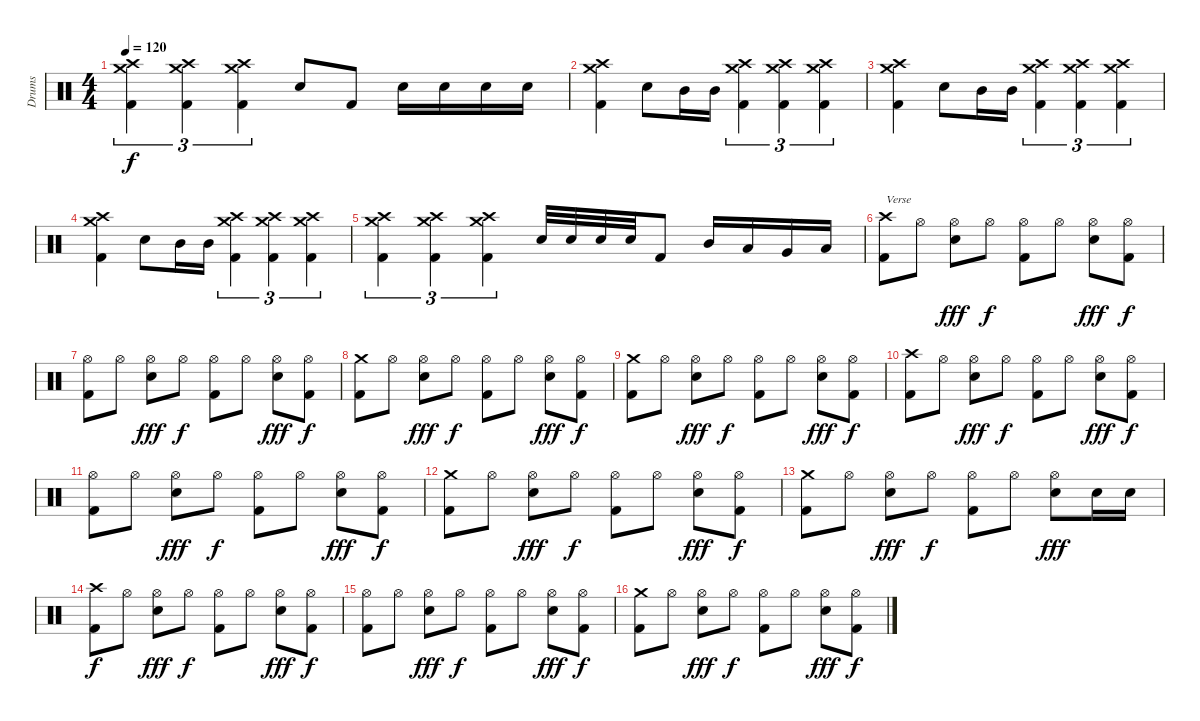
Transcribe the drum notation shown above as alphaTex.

\track ("Drums" "Drums") {instrument percussion}
\staff {score}
\articulation defaults
\ts (4 4)
\tempo 120
\clef neutral
\ks c
("Crash high (hit)" "Crash medium (hit)" "Kick (hit) 2").4{tu (3 2) dy f} ("Crash high (hit)" "Crash medium (hit)" "Kick (hit) 2").4{tu (3 2)} ("Crash high (hit)" "Crash medium (hit)" "Kick (hit) 2").4{tu (3 2)} "Snare (hit) 2".8 "Kick (hit) 2".8 "Snare (hit) 2".16 "Snare (hit) 2".16 "Snare (hit) 2".16 "Snare (hit) 2".16 |
("Crash high (hit)" "Crash medium (hit)" "Kick (hit) 2").4 "Snare (hit) 2".8 "Mid Tom (hit)".16 "Mid Tom (hit)".16 ("Crash high (hit)" "Crash medium (hit)" "Kick (hit) 2").4{tu (3 2)} ("Crash high (hit)" "Crash medium (hit)" "Kick (hit) 2").4{tu (3 2)} ("Crash high (hit)" "Crash medium (hit)" "Kick (hit) 2").4{tu (3 2)} |
("Crash high (hit)" "Crash medium (hit)" "Kick (hit) 2").4 "Snare (hit) 2".8 "Mid Tom (hit)".16 "Mid Tom (hit)".16 ("Crash high (hit)" "Crash medium (hit)" "Kick (hit) 2").4{tu (3 2)} ("Crash high (hit)" "Crash medium (hit)" "Kick (hit) 2").4{tu (3 2)} ("Crash high (hit)" "Crash medium (hit)" "Kick (hit) 2").4{tu (3 2)} |
("Crash high (hit)" "Crash medium (hit)" "Kick (hit) 2").4 "Snare (hit) 2".8 "Mid Tom (hit)".16 "Mid Tom (hit)".16 ("Crash high (hit)" "Crash medium (hit)" "Kick (hit) 2").4{tu (3 2)} ("Crash high (hit)" "Crash medium (hit)" "Kick (hit) 2").4{tu (3 2)} ("Crash high (hit)" "Crash medium (hit)" "Kick (hit) 2").4{tu (3 2)} |
("Crash high (hit)" "Crash medium (hit)" "Kick (hit) 2").4{tu (3 2)} ("Crash high (hit)" "Crash medium (hit)" "Kick (hit) 2").4{tu (3 2)} ("Crash high (hit)" "Crash medium (hit)" "Kick (hit) 2").4{tu (3 2)} "Snare (hit) 2".32 "Snare (hit) 2".32 "Snare (hit) 2".32 "Snare (hit) 2".32 "Kick (hit) 2".8 "Mid Tom (hit)".16 "Low Tom (hit)".16 "Very Low Tom (hit)".16 "Low Floor Tom (hit)".16 |
("Crash high (hit)" "Kick (hit) 2").8{txt "Verse"} "Hi-Hat (open)".8 ("Hi-Hat (open)" "Snare (hit) 2").8{dy fff} "Hi-Hat (open)".8{dy f} ("Hi-Hat (open)" "Kick (hit) 2").8 "Hi-Hat (open)".8 ("Hi-Hat (open)" "Snare (hit) 2").8{dy fff} ("Hi-Hat (open)" "Kick (hit) 2").8{dy f} |
("Hi-Hat (open)" "Kick (hit) 2").8 "Hi-Hat (open)".8 ("Hi-Hat (open)" "Snare (hit) 2").8{dy fff} "Hi-Hat (open)".8{dy f} ("Hi-Hat (open)" "Kick (hit) 2").8 "Hi-Hat (open)".8 ("Hi-Hat (open)" "Snare (hit) 2").8{dy fff} ("Hi-Hat (open)" "Kick (hit) 2").8{dy f} |
("Crash medium (hit)" "Kick (hit) 2").8 "Hi-Hat (open)".8 ("Hi-Hat (open)" "Snare (hit) 2").8{dy fff} "Hi-Hat (open)".8{dy f} ("Hi-Hat (open)" "Kick (hit) 2").8 "Hi-Hat (open)".8 ("Hi-Hat (open)" "Snare (hit) 2").8{dy fff} ("Hi-Hat (open)" "Kick (hit) 2").8{dy f} |
("Crash medium (hit)" "Kick (hit) 2").8 "Hi-Hat (open)".8 ("Hi-Hat (open)" "Snare (hit) 2").8{dy fff} "Hi-Hat (open)".8{dy f} ("Hi-Hat (open)" "Kick (hit) 2").8 "Hi-Hat (open)".8 ("Hi-Hat (open)" "Snare (hit) 2").8{dy fff} ("Hi-Hat (open)" "Kick (hit) 2").8{dy f} |
("Crash high (hit)" "Kick (hit) 2").8 "Hi-Hat (open)".8 ("Hi-Hat (open)" "Snare (hit) 2").8{dy fff} "Hi-Hat (open)".8{dy f} ("Hi-Hat (open)" "Kick (hit) 2").8 "Hi-Hat (open)".8 ("Hi-Hat (open)" "Snare (hit) 2").8{dy fff} ("Hi-Hat (open)" "Kick (hit) 2").8{dy f} |
("Hi-Hat (open)" "Kick (hit) 2").8 "Hi-Hat (open)".8 ("Hi-Hat (open)" "Snare (hit) 2").8{dy fff} "Hi-Hat (open)".8{dy f} ("Hi-Hat (open)" "Kick (hit) 2").8 "Hi-Hat (open)".8 ("Hi-Hat (open)" "Snare (hit) 2").8{dy fff} ("Hi-Hat (open)" "Kick (hit) 2").8{dy f} |
("Crash medium (hit)" "Kick (hit) 2").8 "Hi-Hat (open)".8 ("Hi-Hat (open)" "Snare (hit) 2").8{dy fff} "Hi-Hat (open)".8{dy f} ("Hi-Hat (open)" "Kick (hit) 2").8 "Hi-Hat (open)".8 ("Hi-Hat (open)" "Snare (hit) 2").8{dy fff} ("Hi-Hat (open)" "Kick (hit) 2").8{dy f} |
("Crash medium (hit)" "Kick (hit) 2").8 "Hi-Hat (open)".8 ("Hi-Hat (open)" "Snare (hit) 2").8{dy fff} "Hi-Hat (open)".8{dy f} ("Hi-Hat (open)" "Kick (hit) 2").8 "Hi-Hat (open)".8 ("Hi-Hat (open)" "Snare (hit) 2").8{dy fff} "Snare (hit) 2".16 "Snare (hit) 2".16 |
("Crash high (hit)" "Kick (hit) 2").8{dy f} "Hi-Hat (open)".8 ("Hi-Hat (open)" "Snare (hit) 2").8{dy fff} "Hi-Hat (open)".8{dy f} ("Hi-Hat (open)" "Kick (hit) 2").8 "Hi-Hat (open)".8 ("Hi-Hat (open)" "Snare (hit) 2").8{dy fff} ("Hi-Hat (open)" "Kick (hit) 2").8{dy f} |
("Hi-Hat (open)" "Kick (hit) 2").8 "Hi-Hat (open)".8 ("Hi-Hat (open)" "Snare (hit) 2").8{dy fff} "Hi-Hat (open)".8{dy f} ("Hi-Hat (open)" "Kick (hit) 2").8 "Hi-Hat (open)".8 ("Hi-Hat (open)" "Snare (hit) 2").8{dy fff} ("Hi-Hat (open)" "Kick (hit) 2").8{dy f} |
("Crash medium (hit)" "Kick (hit) 2").8 "Hi-Hat (open)".8 ("Hi-Hat (open)" "Snare (hit) 2").8{dy fff} "Hi-Hat (open)".8{dy f} ("Hi-Hat (open)" "Kick (hit) 2").8 "Hi-Hat (open)".8 ("Hi-Hat (open)" "Snare (hit) 2").8{dy fff} ("Hi-Hat (open)" "Kick (hit) 2").8{dy f}
